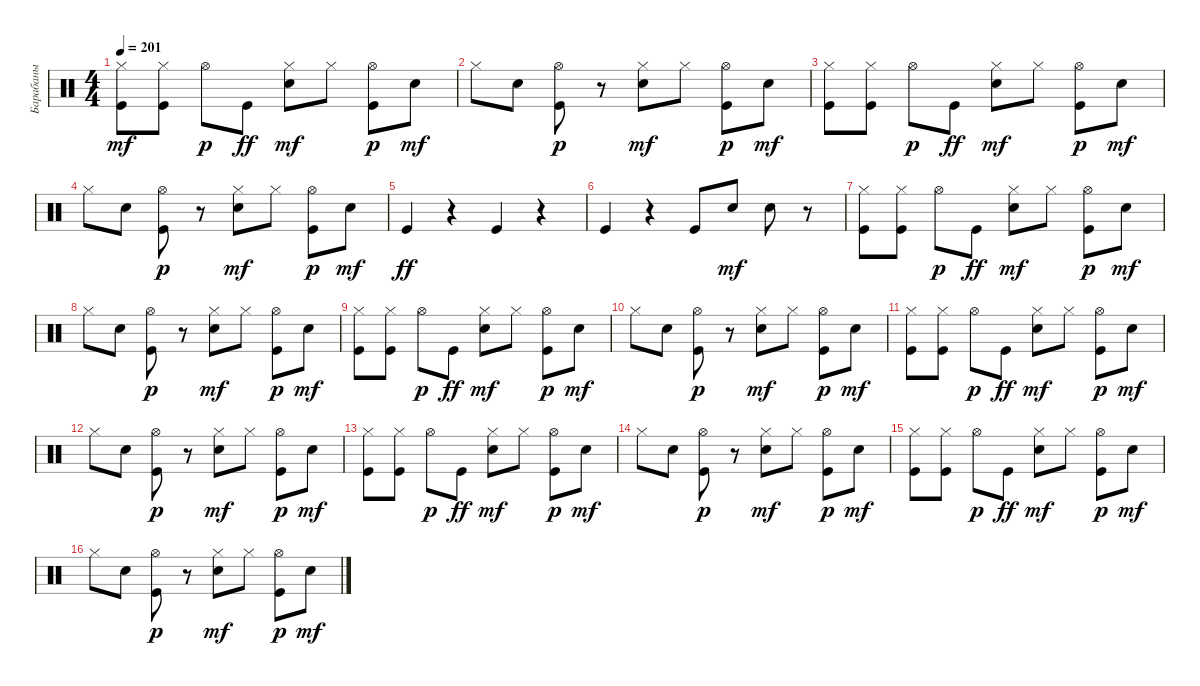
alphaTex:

\track ("Барабаны" "Барабаны") {instrument percussion}
\staff {score}
\articulation defaults
\ts (4 4)
\tempo 201
\clef neutral
\ks c
("Kick (hit)" "Hi-Hat (closed)").8{dy mf} ("Kick (hit)" "Hi-Hat (closed)").8 "Hi-Hat (open)".8{dy p} "Kick (hit)".8{dy ff} ("Snare (hit) 2" "Hi-Hat (closed)").8{dy mf} "Hi-Hat (closed)".8 ("Kick (hit)" "Hi-Hat (open)").8{dy p} "Snare (hit) 2".8{dy mf} |
"Hi-Hat (closed)".8 "Snare (hit) 2".8 ("Kick (hit)" "Hi-Hat (open)").8{dy p} r.8 ("Snare (hit) 2" "Hi-Hat (closed)").8{dy mf} "Hi-Hat (closed)".8 ("Kick (hit)" "Hi-Hat (open)").8{dy p} "Snare (hit) 2".8{dy mf} |
("Kick (hit)" "Hi-Hat (closed)").8 ("Kick (hit)" "Hi-Hat (closed)").8 "Hi-Hat (open)".8{dy p} "Kick (hit)".8{dy ff} ("Snare (hit) 2" "Hi-Hat (closed)").8{dy mf} "Hi-Hat (closed)".8 ("Kick (hit)" "Hi-Hat (open)").8{dy p} "Snare (hit) 2".8{dy mf} |
"Hi-Hat (closed)".8 "Snare (hit) 2".8 ("Kick (hit)" "Hi-Hat (open)").8{dy p} r.8 ("Snare (hit) 2" "Hi-Hat (closed)").8{dy mf} "Hi-Hat (closed)".8 ("Kick (hit)" "Hi-Hat (open)").8{dy p} "Snare (hit) 2".8{dy mf} |
"Kick (hit)".4{dy ff} r.4 "Kick (hit)".4 r.4 |
"Kick (hit)".4 r.4 "Kick (hit)".8 "Snare (hit) 2".8{dy mf} "Snare (hit) 2".8 r.8 |
("Kick (hit)" "Hi-Hat (closed)").8 ("Kick (hit)" "Hi-Hat (closed)").8 "Hi-Hat (open)".8{dy p} "Kick (hit)".8{dy ff} ("Snare (hit) 2" "Hi-Hat (closed)").8{dy mf} "Hi-Hat (closed)".8 ("Kick (hit)" "Hi-Hat (open)").8{dy p} "Snare (hit) 2".8{dy mf} |
"Hi-Hat (closed)".8 "Snare (hit) 2".8 ("Kick (hit)" "Hi-Hat (open)").8{dy p} r.8 ("Snare (hit) 2" "Hi-Hat (closed)").8{dy mf} "Hi-Hat (closed)".8 ("Kick (hit)" "Hi-Hat (open)").8{dy p} "Snare (hit) 2".8{dy mf} |
("Kick (hit)" "Hi-Hat (closed)").8 ("Kick (hit)" "Hi-Hat (closed)").8 "Hi-Hat (open)".8{dy p} "Kick (hit)".8{dy ff} ("Snare (hit) 2" "Hi-Hat (closed)").8{dy mf} "Hi-Hat (closed)".8 ("Kick (hit)" "Hi-Hat (open)").8{dy p} "Snare (hit) 2".8{dy mf} |
"Hi-Hat (closed)".8 "Snare (hit) 2".8 ("Kick (hit)" "Hi-Hat (open)").8{dy p} r.8 ("Snare (hit) 2" "Hi-Hat (closed)").8{dy mf} "Hi-Hat (closed)".8 ("Kick (hit)" "Hi-Hat (open)").8{dy p} "Snare (hit) 2".8{dy mf} |
("Kick (hit)" "Hi-Hat (closed)").8 ("Kick (hit)" "Hi-Hat (closed)").8 "Hi-Hat (open)".8{dy p} "Kick (hit)".8{dy ff} ("Snare (hit) 2" "Hi-Hat (closed)").8{dy mf} "Hi-Hat (closed)".8 ("Kick (hit)" "Hi-Hat (open)").8{dy p} "Snare (hit) 2".8{dy mf} |
"Hi-Hat (closed)".8 "Snare (hit) 2".8 ("Kick (hit)" "Hi-Hat (open)").8{dy p} r.8 ("Snare (hit) 2" "Hi-Hat (closed)").8{dy mf} "Hi-Hat (closed)".8 ("Kick (hit)" "Hi-Hat (open)").8{dy p} "Snare (hit) 2".8{dy mf} |
("Kick (hit)" "Hi-Hat (closed)").8 ("Kick (hit)" "Hi-Hat (closed)").8 "Hi-Hat (open)".8{dy p} "Kick (hit)".8{dy ff} ("Snare (hit) 2" "Hi-Hat (closed)").8{dy mf} "Hi-Hat (closed)".8 ("Kick (hit)" "Hi-Hat (open)").8{dy p} "Snare (hit) 2".8{dy mf} |
"Hi-Hat (closed)".8 "Snare (hit) 2".8 ("Kick (hit)" "Hi-Hat (open)").8{dy p} r.8 ("Snare (hit) 2" "Hi-Hat (closed)").8{dy mf} "Hi-Hat (closed)".8 ("Kick (hit)" "Hi-Hat (open)").8{dy p} "Snare (hit) 2".8{dy mf} |
("Kick (hit)" "Hi-Hat (closed)").8 ("Kick (hit)" "Hi-Hat (closed)").8 "Hi-Hat (open)".8{dy p} "Kick (hit)".8{dy ff} ("Snare (hit) 2" "Hi-Hat (closed)").8{dy mf} "Hi-Hat (closed)".8 ("Kick (hit)" "Hi-Hat (open)").8{dy p} "Snare (hit) 2".8{dy mf} |
"Hi-Hat (closed)".8 "Snare (hit) 2".8 ("Kick (hit)" "Hi-Hat (open)").8{dy p} r.8 ("Snare (hit) 2" "Hi-Hat (closed)").8{dy mf} "Hi-Hat (closed)".8 ("Kick (hit)" "Hi-Hat (open)").8{dy p} "Snare (hit) 2".8{dy mf}
